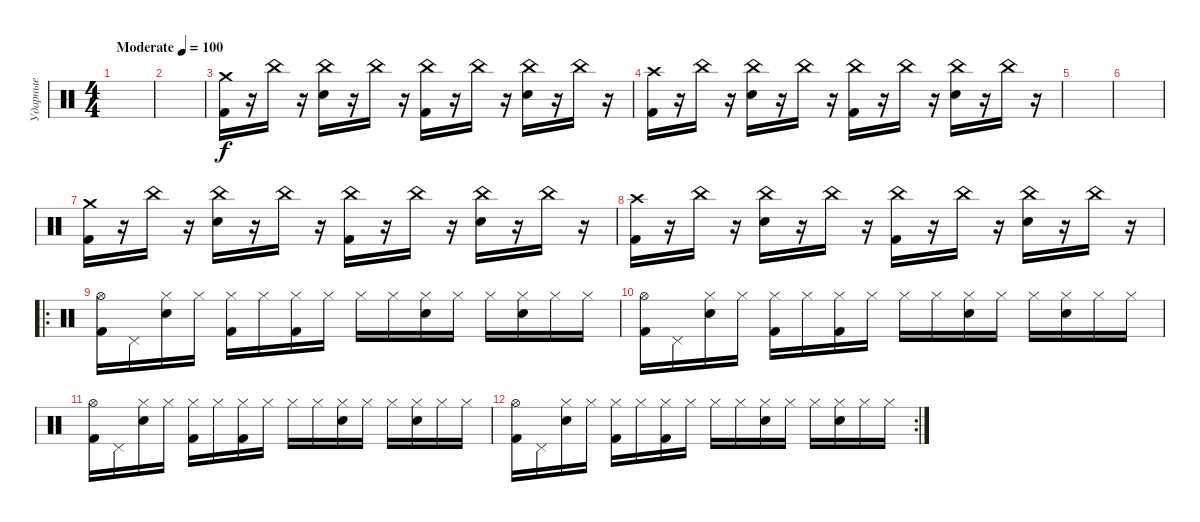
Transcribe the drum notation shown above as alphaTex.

\track ("Ударные" "Ударные") {instrument percussion}
\staff {score}
\articulation defaults
\ts (4 4)
\tempo (100 "Moderate")
\clef neutral
\ks c
|
|
("Crash medium (hit)" "Kick (hit) 2").16 r.16 "China (hit)".16 r.16 ("China (hit)" "Electric Snare (hit)").16 r.16 "China (hit)".16 r.16 ("China (hit)" "Kick (hit) 2").16 r.16 "China (hit)".16 r.16 ("China (hit)" "Electric Snare (hit)").16 r.16 "China (hit)".16 r.16 |
("Crash high (hit)" "Kick (hit) 2").16 r.16 "China (hit)".16 r.16 ("China (hit)" "Electric Snare (hit)").16 r.16 "China (hit)".16 r.16 ("China (hit)" "Kick (hit) 2").16 r.16 "China (hit)".16 r.16 ("China (hit)" "Electric Snare (hit)").16 r.16 "China (hit)".16 r.16 |
|
|
("Crash medium (hit)" "Kick (hit) 2").16 r.16 "China (hit)".16 r.16 ("China (hit)" "Electric Snare (hit)").16 r.16 "China (hit)".16 r.16 ("China (hit)" "Kick (hit) 2").16 r.16 "China (hit)".16 r.16 ("China (hit)" "Electric Snare (hit)").16 r.16 "China (hit)".16 r.16 |
("Crash high (hit)" "Kick (hit) 2").16 r.16 "China (hit)".16 r.16 ("China (hit)" "Electric Snare (hit)").16 r.16 "China (hit)".16 r.16 ("China (hit)" "Kick (hit) 2").16 r.16 "China (hit)".16 r.16 ("China (hit)" "Electric Snare (hit)").16 r.16 "China (hit)".16 r.16 |
\ro
("Hi-Hat (open)" "Kick (hit) 2").16 "Pedal Hi-Hat (hit)".16 ("Hi-Hat (closed)" "Electric Snare (hit)").16 "Hi-Hat (closed)".16 ("Hi-Hat (closed)" "Kick (hit) 2").16 "Hi-Hat (closed)".16 ("Hi-Hat (closed)" "Kick (hit) 2").16 "Hi-Hat (closed)".16 "Hi-Hat (closed)".16 "Hi-Hat (closed)".16 ("Hi-Hat (closed)" "Electric Snare (hit)").16 "Hi-Hat (closed)".16 "Hi-Hat (closed)".16 ("Hi-Hat (closed)" "Electric Snare (hit)").16 "Hi-Hat (closed)".16 "Hi-Hat (closed)".16 |
("Hi-Hat (open)" "Kick (hit) 2").16 "Pedal Hi-Hat (hit)".16 ("Hi-Hat (closed)" "Electric Snare (hit)").16 "Hi-Hat (closed)".16 ("Hi-Hat (closed)" "Kick (hit) 2").16 "Hi-Hat (closed)".16 ("Hi-Hat (closed)" "Kick (hit) 2").16 "Hi-Hat (closed)".16 "Hi-Hat (closed)".16 "Hi-Hat (closed)".16 ("Hi-Hat (closed)" "Electric Snare (hit)").16 "Hi-Hat (closed)".16 "Hi-Hat (closed)".16 ("Hi-Hat (closed)" "Electric Snare (hit)").16 "Hi-Hat (closed)".16 "Hi-Hat (closed)".16 |
("Hi-Hat (open)" "Kick (hit) 2").16 "Pedal Hi-Hat (hit)".16 ("Hi-Hat (closed)" "Electric Snare (hit)").16 "Hi-Hat (closed)".16 ("Hi-Hat (closed)" "Kick (hit) 2").16 "Hi-Hat (closed)".16 ("Hi-Hat (closed)" "Kick (hit) 2").16 "Hi-Hat (closed)".16 "Hi-Hat (closed)".16 "Hi-Hat (closed)".16 ("Hi-Hat (closed)" "Electric Snare (hit)").16 "Hi-Hat (closed)".16 "Hi-Hat (closed)".16 ("Hi-Hat (closed)" "Electric Snare (hit)").16 "Hi-Hat (closed)".16 "Hi-Hat (closed)".16 |
\rc 2
("Hi-Hat (open)" "Kick (hit) 2").16 "Pedal Hi-Hat (hit)".16 ("Hi-Hat (closed)" "Electric Snare (hit)").16 "Hi-Hat (closed)".16 ("Hi-Hat (closed)" "Kick (hit) 2").16 "Hi-Hat (closed)".16 ("Hi-Hat (closed)" "Kick (hit) 2").16 "Hi-Hat (closed)".16 "Hi-Hat (closed)".16 "Hi-Hat (closed)".16 ("Hi-Hat (closed)" "Electric Snare (hit)").16 "Hi-Hat (closed)".16 "Hi-Hat (closed)".16 ("Hi-Hat (closed)" "Electric Snare (hit)").16 "Hi-Hat (closed)".16 "Hi-Hat (closed)".16
